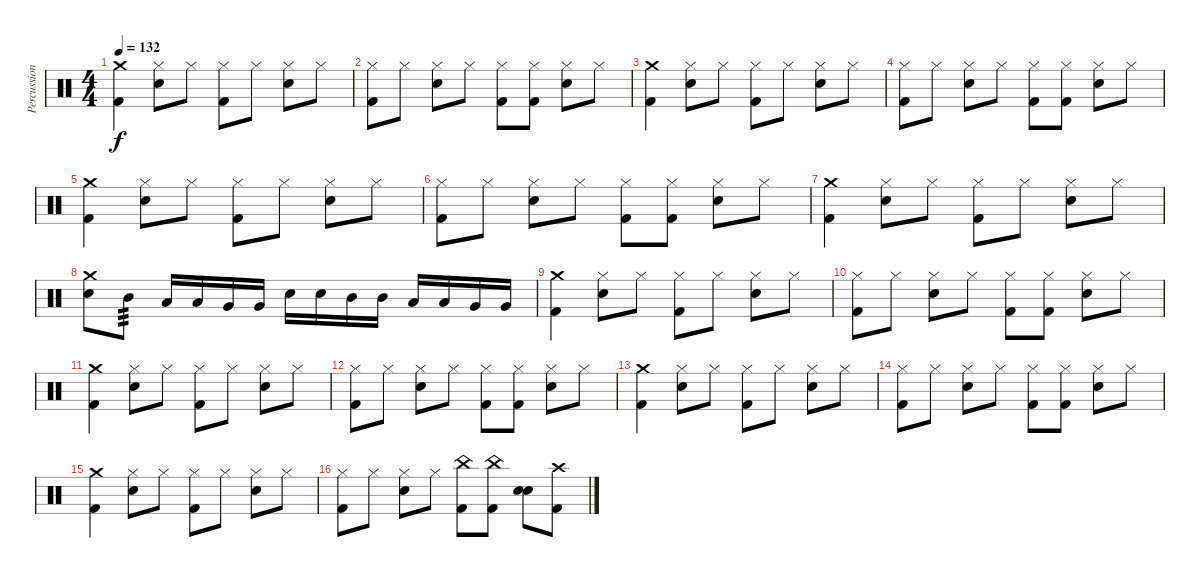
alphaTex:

\track ("Percussion" "Percussion") {instrument percussion}
\staff {score}
\articulation defaults
\ts (4 4)
\tempo 132
\clef neutral
\ks c
("Kick (hit) 2" "Crash medium (hit)").4{dy f} ("Snare (hit) 2" "Hi-Hat (closed)").8 "Hi-Hat (closed)".8 ("Kick (hit) 2" "Hi-Hat (closed)").8 "Hi-Hat (closed)".8 ("Snare (hit) 2" "Hi-Hat (closed)").8 "Hi-Hat (closed)".8 |
("Kick (hit) 2" "Hi-Hat (closed)").8 "Hi-Hat (closed)".8 ("Snare (hit) 2" "Hi-Hat (closed)").8 "Hi-Hat (closed)".8 ("Kick (hit) 2" "Hi-Hat (closed)").8 ("Kick (hit) 2" "Hi-Hat (closed)").8 ("Snare (hit) 2" "Hi-Hat (closed)").8 "Hi-Hat (closed)".8 |
("Kick (hit) 2" "Crash medium (hit)").4 ("Snare (hit) 2" "Hi-Hat (closed)").8 "Hi-Hat (closed)".8 ("Kick (hit) 2" "Hi-Hat (closed)").8 "Hi-Hat (closed)".8 ("Snare (hit) 2" "Hi-Hat (closed)").8 "Hi-Hat (closed)".8 |
("Kick (hit) 2" "Hi-Hat (closed)").8 "Hi-Hat (closed)".8 ("Snare (hit) 2" "Hi-Hat (closed)").8 "Hi-Hat (closed)".8 ("Kick (hit) 2" "Hi-Hat (closed)").8 ("Kick (hit) 2" "Hi-Hat (closed)").8 ("Snare (hit) 2" "Hi-Hat (closed)").8 "Hi-Hat (closed)".8 |
("Kick (hit) 2" "Crash medium (hit)").4 ("Snare (hit) 2" "Hi-Hat (closed)").8 "Hi-Hat (closed)".8 ("Kick (hit) 2" "Hi-Hat (closed)").8 "Hi-Hat (closed)".8 ("Snare (hit) 2" "Hi-Hat (closed)").8 "Hi-Hat (closed)".8 |
("Kick (hit) 2" "Hi-Hat (closed)").8 "Hi-Hat (closed)".8 ("Snare (hit) 2" "Hi-Hat (closed)").8 "Hi-Hat (closed)".8 ("Kick (hit) 2" "Hi-Hat (closed)").8 ("Kick (hit) 2" "Hi-Hat (closed)").8 ("Snare (hit) 2" "Hi-Hat (closed)").8 "Hi-Hat (closed)".8 |
("Kick (hit) 2" "Crash medium (hit)").4 ("Snare (hit) 2" "Hi-Hat (closed)").8 "Hi-Hat (closed)".8 ("Kick (hit) 2" "Hi-Hat (closed)").8 "Hi-Hat (closed)".8 ("Snare (hit) 2" "Hi-Hat (closed)").8 "Hi-Hat (closed)".8 |
("Snare (hit) 2" "Crash medium (hit)").8 "Mid Tom (hit)".8{tp 3} "Low Tom (hit)".16 "Low Tom (hit)".16 "Very Low Tom (hit)".16 "Very Low Tom (hit)".16 "Snare (hit) 2".16 "Snare (hit) 2".16 "Mid Tom (hit)".16 "Mid Tom (hit)".16 "Low Tom (hit)".16 "Low Tom (hit)".16 "Very Low Tom (hit)".16 "Very Low Tom (hit)".16 |
("Kick (hit) 2" "Crash medium (hit)").4 ("Snare (hit) 2" "Hi-Hat (closed)").8 "Hi-Hat (closed)".8 ("Kick (hit) 2" "Hi-Hat (closed)").8 "Hi-Hat (closed)".8 ("Snare (hit) 2" "Hi-Hat (closed)").8 "Hi-Hat (closed)".8 |
("Kick (hit) 2" "Hi-Hat (closed)").8 "Hi-Hat (closed)".8 ("Snare (hit) 2" "Hi-Hat (closed)").8 "Hi-Hat (closed)".8 ("Kick (hit) 2" "Hi-Hat (closed)").8 ("Kick (hit) 2" "Hi-Hat (closed)").8 ("Snare (hit) 2" "Hi-Hat (closed)").8 "Hi-Hat (closed)".8 |
("Kick (hit) 2" "Crash medium (hit)").4 ("Snare (hit) 2" "Hi-Hat (closed)").8 "Hi-Hat (closed)".8 ("Kick (hit) 2" "Hi-Hat (closed)").8 "Hi-Hat (closed)".8 ("Snare (hit) 2" "Hi-Hat (closed)").8 "Hi-Hat (closed)".8 |
("Kick (hit) 2" "Hi-Hat (closed)").8 "Hi-Hat (closed)".8 ("Snare (hit) 2" "Hi-Hat (closed)").8 "Hi-Hat (closed)".8 ("Kick (hit) 2" "Hi-Hat (closed)").8 ("Kick (hit) 2" "Hi-Hat (closed)").8 ("Snare (hit) 2" "Hi-Hat (closed)").8 "Hi-Hat (closed)".8 |
("Kick (hit) 2" "Crash medium (hit)").4 ("Snare (hit) 2" "Hi-Hat (closed)").8 "Hi-Hat (closed)".8 ("Kick (hit) 2" "Hi-Hat (closed)").8 "Hi-Hat (closed)".8 ("Snare (hit) 2" "Hi-Hat (closed)").8 "Hi-Hat (closed)".8 |
("Kick (hit) 2" "Hi-Hat (closed)").8 "Hi-Hat (closed)".8 ("Snare (hit) 2" "Hi-Hat (closed)").8 "Hi-Hat (closed)".8 ("Kick (hit) 2" "Hi-Hat (closed)").8 ("Kick (hit) 2" "Hi-Hat (closed)").8 ("Snare (hit) 2" "Hi-Hat (closed)").8 "Hi-Hat (closed)".8 |
("Kick (hit) 2" "Crash medium (hit)").4 ("Snare (hit) 2" "Hi-Hat (closed)").8 "Hi-Hat (closed)".8 ("Kick (hit) 2" "Hi-Hat (closed)").8 "Hi-Hat (closed)".8 ("Snare (hit) 2" "Hi-Hat (closed)").8 "Hi-Hat (closed)".8 |
("Kick (hit) 2" "Hi-Hat (closed)").8 "Hi-Hat (closed)".8 ("Snare (hit) 2" "Hi-Hat (closed)").8 "Hi-Hat (closed)".8 ("Kick (hit) 2" "China (hit)").8 ("Kick (hit) 2" "China (hit)").8 ("Snare (hit) 2" "Snare (hit) 2").8 ("Kick (hit) 2" "Crash high (hit)").8
